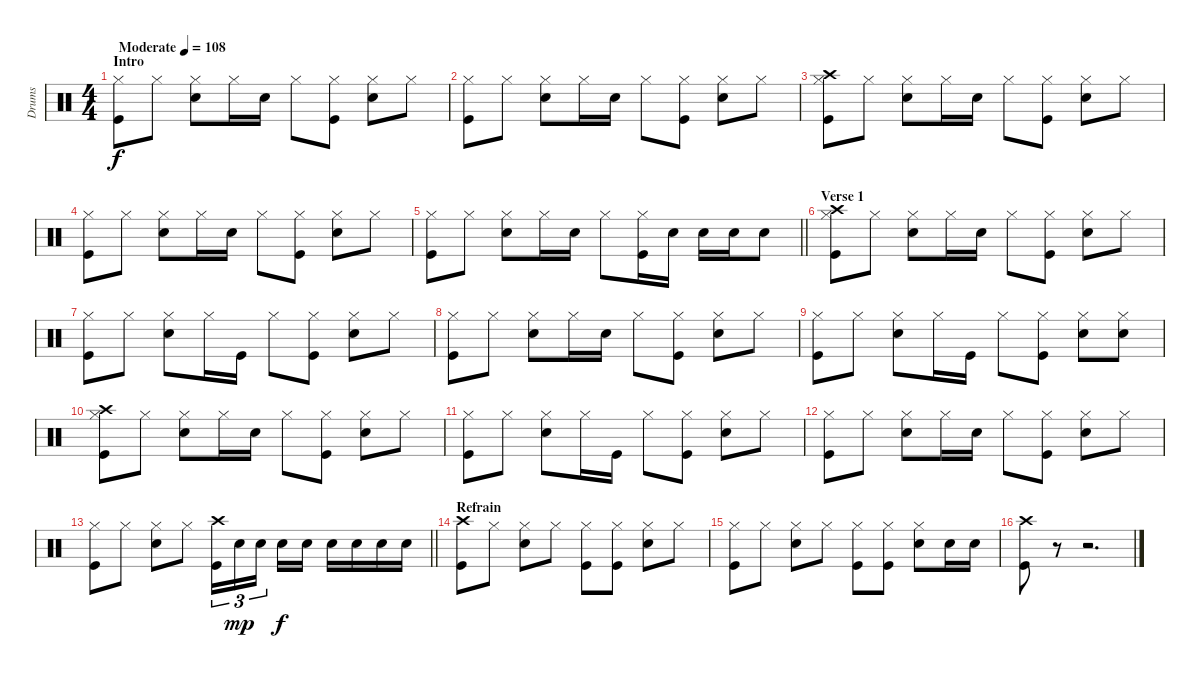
\track ("Drums" "Drums") {instrument percussion}
\staff {score}
\articulation defaults
\ts (4 4)
\section ("" "Intro")
\tempo (108 "Moderate")
\clef neutral
\ks c
("Hi-Hat (closed)" "Kick (hit)").8{dy f} "Hi-Hat (closed)".8 ("Snare (hit) 2" "Hi-Hat (closed)").8 "Hi-Hat (closed)".16 "Snare (hit) 2".16 "Hi-Hat (closed)".8 ("Kick (hit)" "Hi-Hat (closed)").8 ("Hi-Hat (closed)" "Snare (hit) 2").8 "Hi-Hat (closed)".8 |
("Hi-Hat (closed)" "Kick (hit)").8 "Hi-Hat (closed)".8 ("Snare (hit) 2" "Hi-Hat (closed)").8 "Hi-Hat (closed)".16 "Snare (hit) 2".16 "Hi-Hat (closed)".8 ("Kick (hit)" "Hi-Hat (closed)").8 ("Hi-Hat (closed)" "Snare (hit) 2").8 "Hi-Hat (closed)".8 |
("Hi-Hat (closed)" "Kick (hit)" "Crash high (hit)").8 "Hi-Hat (closed)".8 ("Snare (hit) 2" "Hi-Hat (closed)").8 "Hi-Hat (closed)".16 "Snare (hit) 2".16 "Hi-Hat (closed)".8 ("Kick (hit)" "Hi-Hat (closed)").8 ("Hi-Hat (closed)" "Snare (hit) 2").8 "Hi-Hat (closed)".8 |
("Hi-Hat (closed)" "Kick (hit)").8 "Hi-Hat (closed)".8 ("Snare (hit) 2" "Hi-Hat (closed)").8 "Hi-Hat (closed)".16 "Snare (hit) 2".16 "Hi-Hat (closed)".8 ("Kick (hit)" "Hi-Hat (closed)").8 ("Hi-Hat (closed)" "Snare (hit) 2").8 "Hi-Hat (closed)".8 |
\barLineRight lightlight
("Hi-Hat (closed)" "Kick (hit)").8 "Hi-Hat (closed)".8 ("Snare (hit) 2" "Hi-Hat (closed)").8 "Hi-Hat (closed)".16 "Snare (hit) 2".16 "Hi-Hat (closed)".8 ("Kick (hit)" "Hi-Hat (closed)").16 "Snare (hit) 2".16 "Snare (hit) 2".16 "Snare (hit) 2".16 "Snare (hit) 2".8 |
\section ("" "Verse 1")
("Hi-Hat (closed)" "Kick (hit)" "Crash high (hit)").8 "Hi-Hat (closed)".8 ("Snare (hit) 2" "Hi-Hat (closed)").8 "Hi-Hat (closed)".16 "Snare (hit) 2".16 "Hi-Hat (closed)".8 ("Kick (hit)" "Hi-Hat (closed)").8 ("Hi-Hat (closed)" "Snare (hit) 2").8 "Hi-Hat (closed)".8 |
("Hi-Hat (closed)" "Kick (hit)").8 "Hi-Hat (closed)".8 ("Snare (hit) 2" "Hi-Hat (closed)").8 "Hi-Hat (closed)".16 "Kick (hit)".16 "Hi-Hat (closed)".8 ("Kick (hit)" "Hi-Hat (closed)").8 ("Hi-Hat (closed)" "Snare (hit) 2").8 "Hi-Hat (closed)".8 |
("Hi-Hat (closed)" "Kick (hit)").8 "Hi-Hat (closed)".8 ("Snare (hit) 2" "Hi-Hat (closed)").8 "Hi-Hat (closed)".16 "Snare (hit) 2".16 "Hi-Hat (closed)".8 ("Kick (hit)" "Hi-Hat (closed)").8 ("Hi-Hat (closed)" "Snare (hit) 2").8 "Hi-Hat (closed)".8 |
("Hi-Hat (closed)" "Kick (hit)").8 "Hi-Hat (closed)".8 ("Snare (hit) 2" "Hi-Hat (closed)").8 "Hi-Hat (closed)".16 "Kick (hit)".16 "Hi-Hat (closed)".8 ("Kick (hit)" "Hi-Hat (closed)").8 ("Hi-Hat (closed)" "Snare (hit) 2").8 ("Hi-Hat (closed)" "Snare (hit) 2").8 |
("Hi-Hat (closed)" "Kick (hit)" "Crash high (hit)").8 "Hi-Hat (closed)".8 ("Snare (hit) 2" "Hi-Hat (closed)").8 "Hi-Hat (closed)".16 "Snare (hit) 2".16 "Hi-Hat (closed)".8 ("Kick (hit)" "Hi-Hat (closed)").8 ("Hi-Hat (closed)" "Snare (hit) 2").8 "Hi-Hat (closed)".8 |
("Hi-Hat (closed)" "Kick (hit)").8 "Hi-Hat (closed)".8 ("Snare (hit) 2" "Hi-Hat (closed)").8 "Hi-Hat (closed)".16 "Kick (hit)".16 "Hi-Hat (closed)".8 ("Kick (hit)" "Hi-Hat (closed)").8 ("Hi-Hat (closed)" "Snare (hit) 2").8 "Hi-Hat (closed)".8 |
("Hi-Hat (closed)" "Kick (hit)").8 "Hi-Hat (closed)".8 ("Snare (hit) 2" "Hi-Hat (closed)").8 "Hi-Hat (closed)".16 "Snare (hit) 2".16 "Hi-Hat (closed)".8 ("Kick (hit)" "Hi-Hat (closed)").8 ("Hi-Hat (closed)" "Snare (hit) 2").8 "Hi-Hat (closed)".8 |
\barLineRight lightlight
("Hi-Hat (closed)" "Kick (hit)").8 "Hi-Hat (closed)".8 ("Snare (hit) 2" "Hi-Hat (closed)").8 "Hi-Hat (closed)".8 ("Crash high (hit)" "Kick (hit)").16{tu (3 2)} "Snare (hit) 2".16{tu (3 2) dy mp} "Snare (hit) 2".16{tu (3 2) beam splitsecondary} "Snare (hit) 2".16{dy f} "Snare (hit) 2".16 "Snare (hit) 2".16 "Snare (hit) 2".16 "Snare (hit) 2".16 "Snare (hit) 2".16 |
\section ("" "Refrain")
("Crash high (hit)" "Kick (hit)").8 "Hi-Hat (closed)".8 ("Hi-Hat (closed)" "Snare (hit) 2").8 "Hi-Hat (closed)".8 ("Hi-Hat (closed)" "Kick (hit)").8 ("Kick (hit)" "Hi-Hat (closed)").8 ("Hi-Hat (closed)" "Snare (hit) 2").8 "Hi-Hat (closed)".8 |
("Kick (hit)" "Hi-Hat (closed)").8 "Hi-Hat (closed)".8 ("Snare (hit) 2" "Hi-Hat (closed)").8 "Hi-Hat (closed)".8 ("Kick (hit)" "Hi-Hat (closed)").8 ("Hi-Hat (closed)" "Kick (hit)").8 ("Hi-Hat (closed)" "Snare (hit) 2").8 "Snare (hit) 2".16 "Snare (hit) 2".16 |
("Kick (hit)" "Crash high (hit)").8 r.8 r.2{d}
